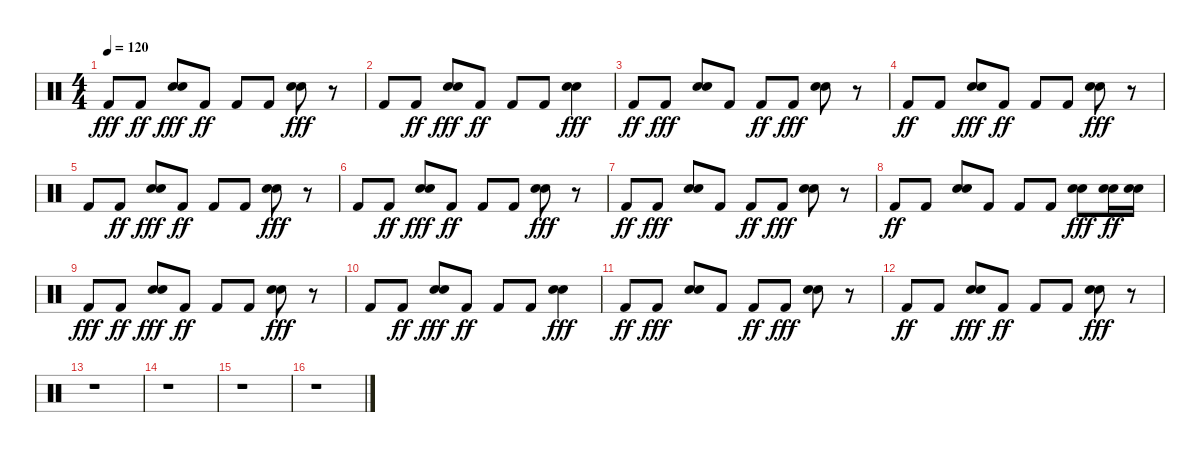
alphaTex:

\track "" {instrument percussion}
\staff {score}
\articulation defaults
\ts (4 4)
\tempo 120
\clef neutral
\ks c "Kick (hit) 2".8{dy fff} "Kick (hit) 2".8{dy ff}
("Electric Snare (hit)" "Snare (hit) 2").8{dy fff} "Kick (hit) 2".8{dy ff} "Kick (hit) 2".8 "Kick (hit) 2".8 ("Electric Snare (hit)" "Snare (hit) 2").8{dy fff} r.8 |
"Kick (hit) 2".8 "Kick (hit) 2".8{dy ff} ("Electric Snare (hit)" "Snare (hit) 2").8{dy fff} "Kick (hit) 2".8{dy ff} "Kick (hit) 2".8 "Kick (hit) 2".8 ("Electric Snare (hit)" "Snare (hit) 2").4{dy fff} |
"Kick (hit) 2".8{dy ff} "Kick (hit) 2".8{dy fff} ("Snare (hit) 2" "Electric Snare (hit)").8 "Kick (hit) 2".8 "Kick (hit) 2".8{dy ff} "Kick (hit) 2".8{dy fff} ("Snare (hit) 2" "Electric Snare (hit)").8 r.8 |
"Kick (hit) 2".8{dy ff} "Kick (hit) 2".8 ("Electric Snare (hit)" "Snare (hit) 2").8{dy fff} "Kick (hit) 2".8{dy ff} "Kick (hit) 2".8 "Kick (hit) 2".8 ("Snare (hit) 2" "Electric Snare (hit)").8{dy fff} r.8 |
"Kick (hit) 2".8 "Kick (hit) 2".8{dy ff} ("Electric Snare (hit)" "Snare (hit) 2").8{dy fff} "Kick (hit) 2".8{dy ff} "Kick (hit) 2".8 "Kick (hit) 2".8 ("Electric Snare (hit)" "Snare (hit) 2").8{dy fff} r.8 |
"Kick (hit) 2".8 "Kick (hit) 2".8{dy ff} ("Electric Snare (hit)" "Snare (hit) 2").8{dy fff} "Kick (hit) 2".8{dy ff} "Kick (hit) 2".8 "Kick (hit) 2".8 ("Snare (hit) 2" "Electric Snare (hit)").8{dy fff} r.8 |
"Kick (hit) 2".8{dy ff} "Kick (hit) 2".8{dy fff} ("Electric Snare (hit)" "Snare (hit) 2").8 "Kick (hit) 2".8 "Kick (hit) 2".8{dy ff} "Kick (hit) 2".8{dy fff} ("Snare (hit) 2" "Electric Snare (hit)").8 r.8 |
"Kick (hit) 2".8{dy ff} "Kick (hit) 2".8 ("Snare (hit) 2" "Electric Snare (hit)").8 "Kick (hit) 2".8 "Kick (hit) 2".8 "Kick (hit) 2".8 ("Electric Snare (hit)" "Snare (hit) 2").8{dy fff} ("Electric Snare (hit)" "Snare (hit) 2").16{dy ff} ("Snare (hit) 2" "Electric Snare (hit)").16 |
"Kick (hit) 2".8{dy fff} "Kick (hit) 2".8{dy ff} ("Electric Snare (hit)" "Snare (hit) 2").8{dy fff} "Kick (hit) 2".8{dy ff} "Kick (hit) 2".8 "Kick (hit) 2".8 ("Electric Snare (hit)" "Snare (hit) 2").8{dy fff} r.8 |
"Kick (hit) 2".8 "Kick (hit) 2".8{dy ff} ("Electric Snare (hit)" "Snare (hit) 2").8{dy fff} "Kick (hit) 2".8{dy ff} "Kick (hit) 2".8 "Kick (hit) 2".8 ("Electric Snare (hit)" "Snare (hit) 2").4{dy fff} |
"Kick (hit) 2".8{dy ff} "Kick (hit) 2".8{dy fff} ("Snare (hit) 2" "Electric Snare (hit)").8 "Kick (hit) 2".8 "Kick (hit) 2".8{dy ff} "Kick (hit) 2".8{dy fff} ("Snare (hit) 2" "Electric Snare (hit)").8 r.8 |
"Kick (hit) 2".8{dy ff} "Kick (hit) 2".8 ("Electric Snare (hit)" "Snare (hit) 2").8{dy fff} "Kick (hit) 2".8{dy ff} "Kick (hit) 2".8 "Kick (hit) 2".8 ("Snare (hit) 2" "Electric Snare (hit)").8{dy fff} r.8 |
r.1 |
r.1 |
r.1 |
r.1
